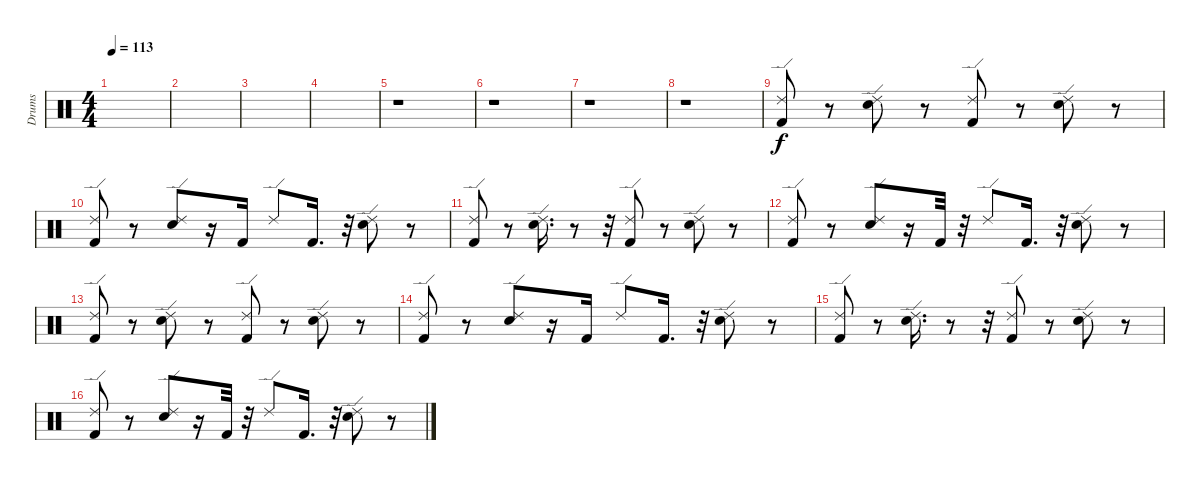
\track ("Drums" "Drums") {instrument percussion}
\staff {score}
\articulation defaults
\ts (4 4)
\tempo 113
\clef neutral
\ks c
|
|
|
|
r.1 |
r.1 |
r.1 |
r.1 |
("Kick (hit) 2" "Ride (edge) 2").8 r.8 ("Ride (edge) 2" "Snare (hit) 2").8 r.8 ("Kick (hit) 2" "Ride (edge) 2").8 r.8 ("Snare (hit) 2" "Ride (edge) 2").8 r.8 |
("Kick (hit) 2" "Ride (edge) 2").8 r.8 ("Snare (hit) 2" "Ride (edge) 2").8 r.16 "Kick (hit) 2".16 "Ride (edge) 2".8 "Kick (hit) 2".16{d} r.32 ("Snare (hit) 2" "Ride (edge) 2").8 r.8 |
("Kick (hit) 2" "Ride (edge) 2").8 r.8 ("Snare (hit) 2" "Ride (edge) 2").16{d} r.8 r.32 ("Kick (hit) 2" "Ride (edge) 2").8 r.8 ("Ride (edge) 2" "Snare (hit) 2").8 r.8 |
("Kick (hit) 2" "Ride (edge) 2").8 r.8 ("Snare (hit) 2" "Ride (edge) 2").8 r.16 "Kick (hit) 2".32 r.32 "Ride (edge) 2".8 "Kick (hit) 2".16{d} r.32 ("Snare (hit) 2" "Ride (edge) 2").8 r.8 |
("Kick (hit) 2" "Ride (edge) 2").8 r.8 ("Ride (edge) 2" "Snare (hit) 2").8 r.8 ("Kick (hit) 2" "Ride (edge) 2").8 r.8 ("Snare (hit) 2" "Ride (edge) 2").8 r.8 |
("Kick (hit) 2" "Ride (edge) 2").8 r.8 ("Snare (hit) 2" "Ride (edge) 2").8 r.16 "Kick (hit) 2".16 "Ride (edge) 2".8 "Kick (hit) 2".16{d} r.32 ("Snare (hit) 2" "Ride (edge) 2").8 r.8 |
("Kick (hit) 2" "Ride (edge) 2").8 r.8 ("Snare (hit) 2" "Ride (edge) 2").16{d} r.8 r.32 ("Kick (hit) 2" "Ride (edge) 2").8 r.8 ("Ride (edge) 2" "Snare (hit) 2").8 r.8 |
("Kick (hit) 2" "Ride (edge) 2").8 r.8 ("Snare (hit) 2" "Ride (edge) 2").8 r.16 "Kick (hit) 2".32 r.32 "Ride (edge) 2".8 "Kick (hit) 2".16{d} r.32 ("Snare (hit) 2" "Ride (edge) 2").8 r.8
